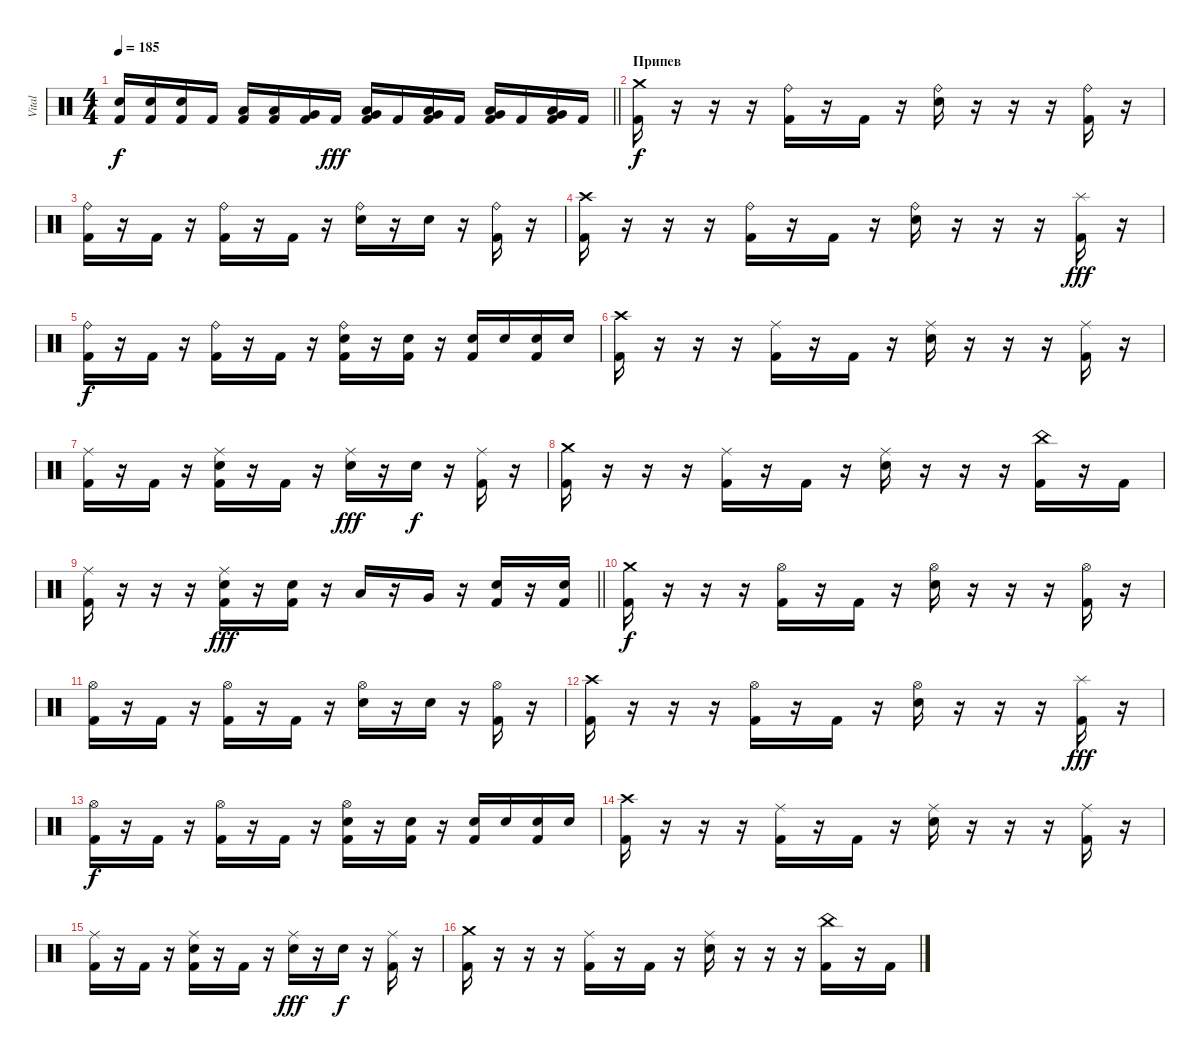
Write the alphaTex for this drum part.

\track ("Vital" "Vital") {instrument percussion}
\staff {score}
\articulation defaults
\ts (4 4)
\tempo 185
\clef neutral
\barLineRight lightlight
\ks c
("Snare (hit) 2" "Kick (hit) 2").16{dy f} ("Snare (hit) 2" "Kick (hit) 2").16 ("Snare (hit) 2" "Kick (hit) 2").16 "Kick (hit) 2".16 ("Low Tom (hit)" "Kick (hit) 2").16 ("Low Tom (hit)" "Kick (hit) 2").16 ("Very Low Tom (hit)" "Kick (hit) 2").16 "Kick (hit) 2".16{dy fff} ("Low Tom (hit)" "Very Low Tom (hit)" "Kick (hit) 2").16 "Kick (hit) 2".16 ("Low Tom (hit)" "Very Low Tom (hit)" "Kick (hit) 2").16 "Kick (hit) 2".16 ("Very Low Tom (hit)" "Low Floor Tom (hit)" "Kick (hit) 2").16 "Kick (hit) 2".16 ("Low Tom (hit)" "Very Low Tom (hit)" "Kick (hit) 2").16 "Kick (hit) 2".16 |
\section ("" "Припев")
("Crash medium (hit)" "Kick (hit) 2").16{dy f} r.16 r.16 r.16 ("Ride (bell)" "Kick (hit) 2").16 r.16 "Kick (hit) 2".16 r.16 ("Ride (bell)" "Snare (hit) 2").16 r.16 r.16 r.16 ("Ride (bell)" "Kick (hit) 2").16 r.16 |
("Ride (bell)" "Kick (hit) 2").16 r.16 "Kick (hit) 2".16 r.16 ("Ride (bell)" "Kick (hit) 2").16 r.16 "Kick (hit) 2".16 r.16 ("Ride (bell)" "Snare (hit) 2").16 r.16 "Snare (hit) 2".16 r.16 ("Ride (bell)" "Kick (hit) 2").16 r.16 |
("Crash high (hit)" "Kick (hit) 2").16 r.16 r.16 r.16 ("Ride (bell)" "Kick (hit) 2").16 r.16 "Kick (hit) 2".16 r.16 ("Ride (bell)" "Snare (hit) 2").16 r.16 r.16 r.16 ("Splash (hit)" "Kick (hit) 2").16{dy fff} r.16 |
("Ride (bell)" "Kick (hit) 2").16{dy f} r.16 "Kick (hit) 2".16 r.16 ("Ride (bell)" "Kick (hit) 2").16 r.16 "Kick (hit) 2".16 r.16 ("Ride (bell)" "Snare (hit) 2" "Kick (hit) 2").16 r.16 ("Snare (hit) 2" "Kick (hit) 2").16 r.16 ("Snare (hit) 2" "Kick (hit) 2").16 "Snare (hit) 2".16 ("Snare (hit) 2" "Kick (hit) 2").16 "Snare (hit) 2".16 |
("Crash high (hit)" "Kick (hit) 2").16 r.16 r.16 r.16 ("Ride (middle)" "Kick (hit) 2").16 r.16 "Kick (hit) 2".16 r.16 ("Ride (middle)" "Snare (hit) 2").16 r.16 r.16 r.16 ("Ride (middle)" "Kick (hit) 2").16 r.16 |
("Ride (middle)" "Kick (hit) 2").16 r.16 "Kick (hit) 2".16 r.16 ("Ride (middle)" "Snare (hit) 2" "Kick (hit) 2").16 r.16 "Kick (hit) 2".16 r.16 ("Ride (middle)" "Snare (hit) 2").16{dy fff} r.16 "Snare (hit) 2".16{dy f} r.16 ("Ride (middle)" "Kick (hit) 2").16 r.16 |
("Crash medium (hit)" "Kick (hit) 2").16 r.16 r.16 r.16 ("Ride (middle)" "Kick (hit) 2").16 r.16 "Kick (hit) 2".16 r.16 ("Ride (middle)" "Snare (hit) 2").16 r.16 r.16 r.16 ("China (hit)" "Kick (hit) 2").16 r.16 "Kick (hit) 2".16 |
\barLineRight lightlight
("Ride (middle)" "Kick (hit) 2").16 r.16 r.16 r.16 ("Ride (middle)" "Snare (hit) 2" "Kick (hit) 2").16{dy fff} r.16 ("Snare (hit) 2" "Kick (hit) 2").16 r.16 "Low Tom (hit)".16 r.16 "Very Low Tom (hit)".16 r.16 ("Snare (hit) 2" "Kick (hit) 2").16 r.16 ("Snare (hit) 2" "Kick (hit) 2").16 |
("Crash medium (hit)" "Kick (hit) 2").16{dy f} r.16 r.16 r.16 ("Hi-Hat (open)" "Kick (hit) 2").16 r.16 "Kick (hit) 2".16 r.16 ("Hi-Hat (open)" "Snare (hit) 2").16 r.16 r.16 r.16 ("Hi-Hat (open)" "Kick (hit) 2").16 r.16 |
("Hi-Hat (open)" "Kick (hit) 2").16 r.16 "Kick (hit) 2".16 r.16 ("Hi-Hat (open)" "Kick (hit) 2").16 r.16 "Kick (hit) 2".16 r.16 ("Hi-Hat (open)" "Snare (hit) 2").16 r.16 "Snare (hit) 2".16 r.16 ("Hi-Hat (open)" "Kick (hit) 2").16 r.16 |
("Crash high (hit)" "Kick (hit) 2").16 r.16 r.16 r.16 ("Hi-Hat (open)" "Kick (hit) 2").16 r.16 "Kick (hit) 2".16 r.16 ("Hi-Hat (open)" "Snare (hit) 2").16 r.16 r.16 r.16 ("Splash (hit)" "Kick (hit) 2").16{dy fff} r.16 |
("Hi-Hat (open)" "Kick (hit) 2").16{dy f} r.16 "Kick (hit) 2".16 r.16 ("Hi-Hat (open)" "Kick (hit) 2").16 r.16 "Kick (hit) 2".16 r.16 ("Hi-Hat (open)" "Snare (hit) 2" "Kick (hit) 2").16 r.16 ("Snare (hit) 2" "Kick (hit) 2").16 r.16 ("Snare (hit) 2" "Kick (hit) 2").16 "Snare (hit) 2".16 ("Snare (hit) 2" "Kick (hit) 2").16 "Snare (hit) 2".16 |
("Crash high (hit)" "Kick (hit) 2").16 r.16 r.16 r.16 ("Ride (middle)" "Kick (hit) 2").16 r.16 "Kick (hit) 2".16 r.16 ("Ride (middle)" "Snare (hit) 2").16 r.16 r.16 r.16 ("Ride (middle)" "Kick (hit) 2").16 r.16 |
("Ride (middle)" "Kick (hit) 2").16 r.16 "Kick (hit) 2".16 r.16 ("Ride (middle)" "Snare (hit) 2" "Kick (hit) 2").16 r.16 "Kick (hit) 2".16 r.16 ("Ride (middle)" "Snare (hit) 2").16{dy fff} r.16 "Snare (hit) 2".16{dy f} r.16 ("Ride (middle)" "Kick (hit) 2").16 r.16 |
("Crash medium (hit)" "Kick (hit) 2").16 r.16 r.16 r.16 ("Ride (middle)" "Kick (hit) 2").16 r.16 "Kick (hit) 2".16 r.16 ("Ride (middle)" "Snare (hit) 2").16 r.16 r.16 r.16 ("China (hit)" "Kick (hit) 2").16 r.16 "Kick (hit) 2".16
